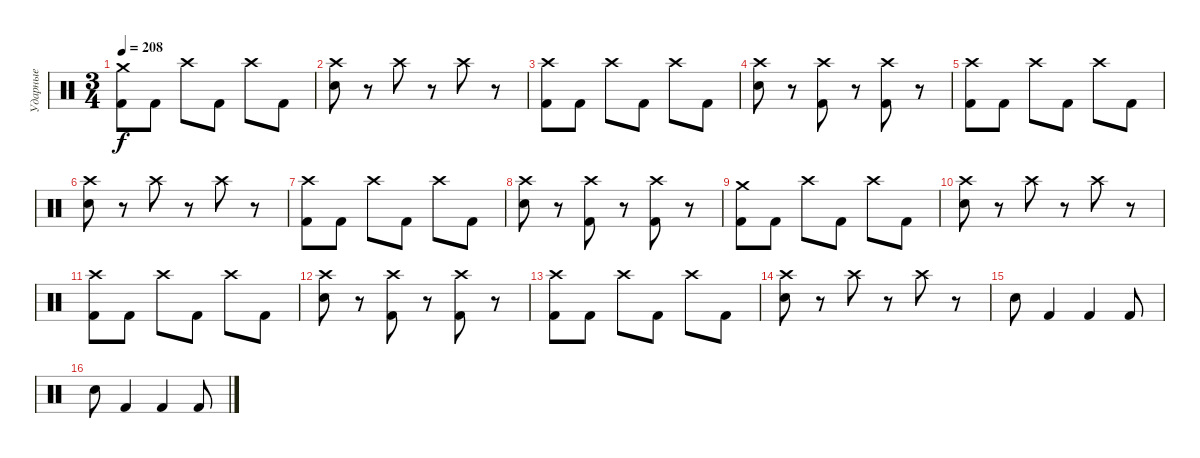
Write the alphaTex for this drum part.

\track ("Ударные" "Ударные") {instrument percussion}
\staff {score}
\articulation defaults
\ts (3 4)
\tempo 208
\clef neutral
\ks c
("Crash medium (hit)" "Kick (hit) 2").8{dy f} "Kick (hit) 2".8 "Crash high (hit)".8 "Kick (hit) 2".8 "Crash high (hit)".8 "Kick (hit) 2".8 |
("Crash high (hit)" "Electric Snare (hit)").8 r.8 "Crash high (hit)".8 r.8 "Crash high (hit)".8 r.8 |
("Crash high (hit)" "Kick (hit) 2").8 "Kick (hit) 2".8 "Crash high (hit)".8 "Kick (hit) 2".8 "Crash high (hit)".8 "Kick (hit) 2".8 |
("Crash high (hit)" "Electric Snare (hit)").8 r.8 ("Crash high (hit)" "Kick (hit) 2").8 r.8 ("Crash high (hit)" "Kick (hit) 2").8 r.8 |
("Crash high (hit)" "Kick (hit) 2").8 "Kick (hit) 2".8 "Crash high (hit)".8 "Kick (hit) 2".8 "Crash high (hit)".8 "Kick (hit) 2".8 |
("Crash high (hit)" "Electric Snare (hit)").8 r.8 "Crash high (hit)".8 r.8 "Crash high (hit)".8 r.8 |
("Crash high (hit)" "Kick (hit) 2").8 "Kick (hit) 2".8 "Crash high (hit)".8 "Kick (hit) 2".8 "Crash high (hit)".8 "Kick (hit) 2".8 |
("Crash high (hit)" "Electric Snare (hit)").8 r.8 ("Crash high (hit)" "Kick (hit) 2").8 r.8 ("Crash high (hit)" "Kick (hit) 2").8 r.8 |
("Crash medium (hit)" "Kick (hit) 2").8 "Kick (hit) 2".8 "Crash high (hit)".8 "Kick (hit) 2".8 "Crash high (hit)".8 "Kick (hit) 2".8 |
("Crash high (hit)" "Electric Snare (hit)").8 r.8 "Crash high (hit)".8 r.8 "Crash high (hit)".8 r.8 |
("Crash high (hit)" "Kick (hit) 2").8 "Kick (hit) 2".8 "Crash high (hit)".8 "Kick (hit) 2".8 "Crash high (hit)".8 "Kick (hit) 2".8 |
("Crash high (hit)" "Electric Snare (hit)").8 r.8 ("Crash high (hit)" "Kick (hit) 2").8 r.8 ("Crash high (hit)" "Kick (hit) 2").8 r.8 |
("Crash high (hit)" "Kick (hit) 2").8 "Kick (hit) 2".8 "Crash high (hit)".8 "Kick (hit) 2".8 "Crash high (hit)".8 "Kick (hit) 2".8 |
("Crash high (hit)" "Electric Snare (hit)").8 r.8 "Crash high (hit)".8 r.8 "Crash high (hit)".8 r.8 |
"Electric Snare (hit)".8 "Kick (hit) 2".4 "Kick (hit) 2".4 "Kick (hit) 2".8 |
"Electric Snare (hit)".8 "Kick (hit) 2".4 "Kick (hit) 2".4 "Kick (hit) 2".8
